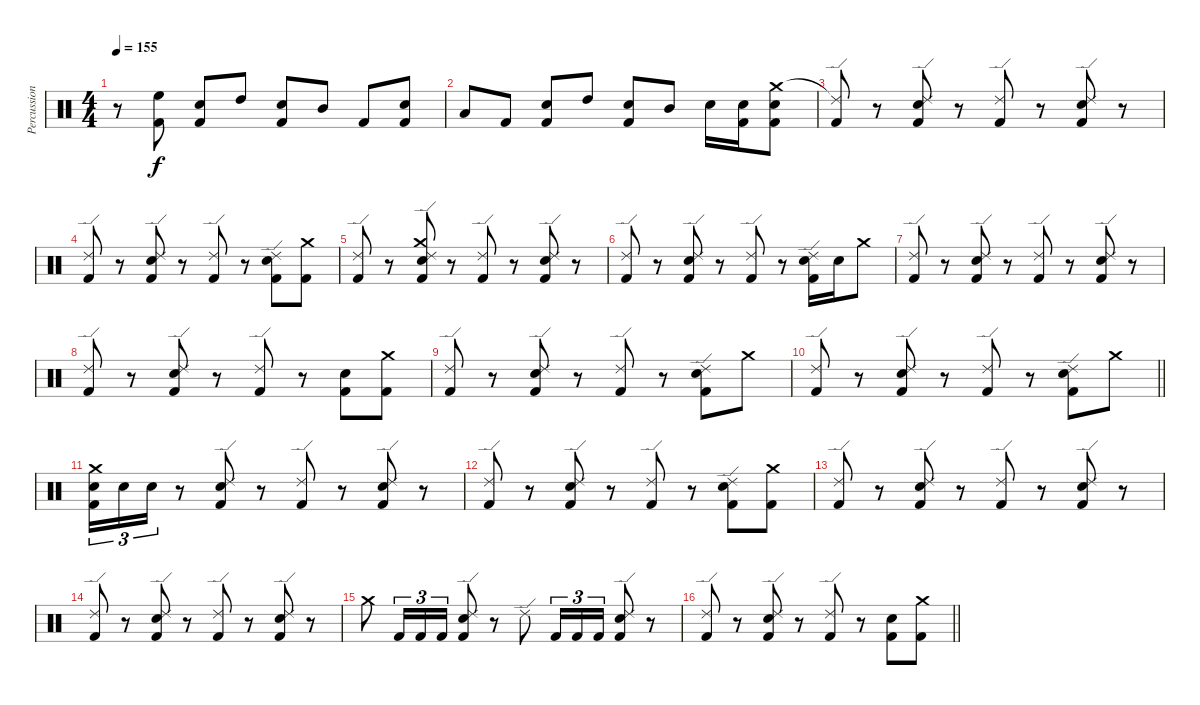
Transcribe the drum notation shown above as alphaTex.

\track ("Percussion" "Percussion") {instrument percussion}
\staff {score}
\articulation defaults
\ts (4 4)
\tempo 155
\clef neutral
\ks c
r.8{dy f} ("High Floor Tom (hit)" "Kick (hit) 2").8 ("Snare (hit) 2" "Kick (hit) 2").8 "High Tom (hit)".8 ("Snare (hit) 2" "Kick (hit) 2").8 "Mid Tom (hit)".8 "Kick (hit) 2".8 ("Snare (hit) 2" "Kick (hit) 2").8 |
"Low Tom (hit)".8 "Kick (hit) 2".8 ("Snare (hit) 2" "Kick (hit) 2").8 "High Tom (hit)".8 ("Snare (hit) 2" "Kick (hit) 2").8 "Mid Tom (hit)".8 "Snare (hit) 2".16 ("Snare (hit) 2" "Kick (hit) 2").16 ("Crash medium (hit)" "Snare (hit) 2" "Kick (hit) 2").8 |
("Ride (edge) 2"{t} "Kick (hit) 2").8 r.8 ("Ride (edge) 2" "Snare (hit) 2" "Kick (hit) 2").8 r.8 ("Ride (edge) 2" "Kick (hit) 2").8 r.8 ("Ride (edge) 2" "Snare (hit) 2" "Kick (hit) 2").8 r.8 |
("Ride (edge) 2" "Kick (hit) 2").8 r.8 ("Ride (edge) 2" "Snare (hit) 2" "Kick (hit) 2").8 r.8 ("Ride (edge) 2" "Kick (hit) 2").8 r.8 ("Ride (edge) 2" "Snare (hit) 2" "Kick (hit) 2").8 ("Crash medium (hit)" "Kick (hit) 2").8 |
("Ride (edge) 2" "Kick (hit) 2").8 r.8 ("Crash medium (hit)" "Ride (edge) 2" "Snare (hit) 2" "Kick (hit) 2").8 r.8 ("Ride (edge) 2" "Kick (hit) 2").8 r.8 ("Ride (edge) 2" "Snare (hit) 2" "Kick (hit) 2").8 r.8 |
("Ride (edge) 2" "Kick (hit) 2").8 r.8 ("Ride (edge) 2" "Snare (hit) 2" "Kick (hit) 2").8 r.8 ("Ride (edge) 2" "Kick (hit) 2").8 r.8 ("Ride (edge) 2" "Snare (hit) 2" "Kick (hit) 2").16 "Snare (hit) 2".16 "Crash medium (hit)".8 |
("Ride (edge) 2" "Kick (hit) 2").8 r.8 ("Ride (edge) 2" "Snare (hit) 2" "Kick (hit) 2").8 r.8 ("Ride (edge) 2" "Kick (hit) 2").8 r.8 ("Ride (edge) 2" "Snare (hit) 2" "Kick (hit) 2").8 r.8 |
("Ride (edge) 2" "Kick (hit) 2").8 r.8 ("Ride (edge) 2" "Snare (hit) 2" "Kick (hit) 2").8 r.8 ("Ride (edge) 2" "Kick (hit) 2").8 r.8 ("Snare (hit) 2" "Kick (hit) 2").8 ("Crash medium (hit)" "Kick (hit) 2").8 |
("Ride (edge) 2" "Kick (hit) 2").8 r.8 ("Ride (edge) 2" "Snare (hit) 2" "Kick (hit) 2").8 r.8 ("Ride (edge) 2" "Kick (hit) 2").8 r.8 ("Ride (edge) 2" "Snare (hit) 2" "Kick (hit) 2").8 "Crash medium (hit)".8 |
\barLineRight lightlight
("Ride (edge) 2" "Kick (hit) 2").8 r.8 ("Ride (edge) 2" "Snare (hit) 2" "Kick (hit) 2").8 r.8 ("Ride (edge) 2" "Kick (hit) 2").8 r.8 ("Ride (edge) 2" "Snare (hit) 2" "Kick (hit) 2").8 "Crash medium (hit)".8 |
("Crash medium (hit)" "Snare (hit) 2" "Kick (hit) 2").16{tu (3 2)} "Snare (hit) 2".16{tu (3 2)} "Snare (hit) 2".16{tu (3 2)} r.8 ("Ride (edge) 2" "Snare (hit) 2" "Kick (hit) 2").8 r.8 ("Ride (edge) 2" "Kick (hit) 2").8 r.8 ("Ride (edge) 2" "Snare (hit) 2" "Kick (hit) 2").8 r.8 |
("Ride (edge) 2" "Kick (hit) 2").8 r.8 ("Ride (edge) 2" "Snare (hit) 2" "Kick (hit) 2").8 r.8 ("Ride (edge) 2" "Kick (hit) 2").8 r.8 ("Ride (edge) 2" "Snare (hit) 2" "Kick (hit) 2").8 ("Crash medium (hit)" "Kick (hit) 2").8 |
("Ride (edge) 2" "Kick (hit) 2").8 r.8 ("Ride (edge) 2" "Snare (hit) 2" "Kick (hit) 2").8 r.8 ("Ride (edge) 2" "Kick (hit) 2").8 r.8 ("Ride (edge) 2" "Snare (hit) 2" "Kick (hit) 2").8 r.8 |
("Ride (edge) 2" "Kick (hit) 2").8 r.8 ("Ride (edge) 2" "Snare (hit) 2" "Kick (hit) 2").8 r.8 ("Ride (edge) 2" "Kick (hit) 2").8 r.8 ("Ride (edge) 2" "Snare (hit) 2" "Kick (hit) 2").8 r.8 |
"Crash medium (hit)".8 "Kick (hit) 2".16{tu (3 2)} "Kick (hit) 2".16{tu (3 2)} "Kick (hit) 2".16{tu (3 2)} ("Ride (edge) 2" "Snare (hit) 2" "Kick (hit) 2").8 r.8 "Ride (edge) 2".8 "Kick (hit) 2".16{tu (3 2)} "Kick (hit) 2".16{tu (3 2)} "Kick (hit) 2".16{tu (3 2)} ("Ride (edge) 2" "Snare (hit) 2" "Kick (hit) 2").8 r.8 |
\barLineRight lightlight
("Ride (edge) 2" "Kick (hit) 2").8 r.8 ("Ride (edge) 2" "Snare (hit) 2" "Kick (hit) 2").8 r.8 ("Ride (edge) 2" "Kick (hit) 2").8 r.8 ("Snare (hit) 2" "Kick (hit) 2").8 ("Crash medium (hit)" "Kick (hit) 2").8
